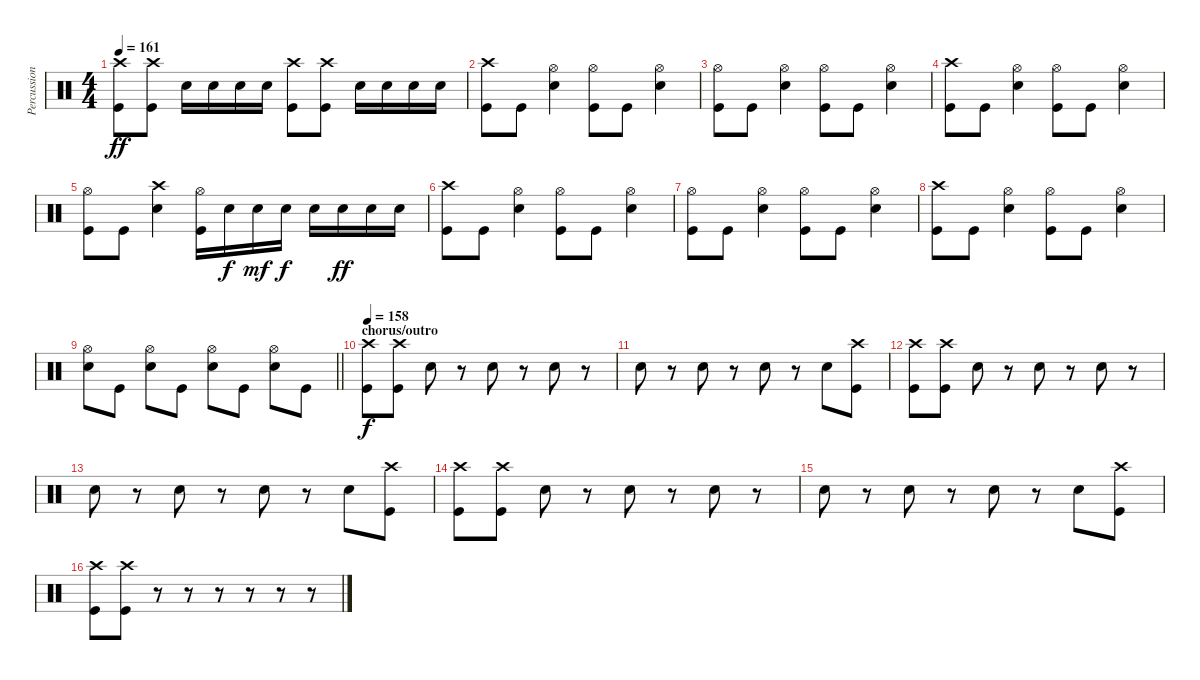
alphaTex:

\track ("Percussion" "Percussion") {instrument percussion}
\staff {score}
\articulation defaults
\ts (4 4)
\tempo 161
\clef neutral
\ks c
("Crash high (hit)" "Kick (hit)").8{dy ff} ("Crash high (hit)" "Kick (hit)").8 "Snare (hit) 2".16 "Snare (hit) 2".16 "Snare (hit) 2".16 "Snare (hit) 2".16 ("Crash high (hit)" "Kick (hit)").8 ("Crash high (hit)" "Kick (hit)").8 "Snare (hit) 2".16 "Snare (hit) 2".16 "Snare (hit) 2".16 "Snare (hit) 2".16 |
("Crash high (hit)" "Kick (hit)").8 "Kick (hit)".8 ("Hi-Hat (open)" "Snare (hit) 2").4 ("Hi-Hat (open)" "Kick (hit)").8 "Kick (hit)".8 ("Hi-Hat (open)" "Snare (hit) 2").4 |
("Hi-Hat (open)" "Kick (hit)").8 "Kick (hit)".8 ("Hi-Hat (open)" "Snare (hit) 2").4 ("Hi-Hat (open)" "Kick (hit)").8 "Kick (hit)".8 ("Hi-Hat (open)" "Snare (hit) 2").4 |
("Crash high (hit)" "Kick (hit)").8 "Kick (hit)".8 ("Hi-Hat (open)" "Snare (hit) 2").4 ("Hi-Hat (open)" "Kick (hit)").8 "Kick (hit)".8 ("Hi-Hat (open)" "Snare (hit) 2").4 |
("Hi-Hat (open)" "Kick (hit)").8 "Kick (hit)".8 ("Crash high (hit)" "Snare (hit) 2").4 ("Hi-Hat (open)" "Kick (hit)").16 "Snare (hit) 2".16{dy f} "Snare (hit) 2".16{dy mf} "Snare (hit) 2".16{dy f} "Snare (hit) 2".16 "Snare (hit) 2".16{dy ff} "Snare (hit) 2".16 "Snare (hit) 2".16 |
("Crash high (hit)" "Kick (hit)").8 "Kick (hit)".8 ("Hi-Hat (open)" "Snare (hit) 2").4 ("Hi-Hat (open)" "Kick (hit)").8 "Kick (hit)".8 ("Hi-Hat (open)" "Snare (hit) 2").4 |
("Hi-Hat (open)" "Kick (hit)").8 "Kick (hit)".8 ("Hi-Hat (open)" "Snare (hit) 2").4 ("Hi-Hat (open)" "Kick (hit)").8 "Kick (hit)".8 ("Hi-Hat (open)" "Snare (hit) 2").4 |
("Crash high (hit)" "Kick (hit)").8 "Kick (hit)".8 ("Hi-Hat (open)" "Snare (hit) 2").4 ("Hi-Hat (open)" "Kick (hit)").8 "Kick (hit)".8 ("Hi-Hat (open)" "Snare (hit) 2").4 |
\barLineRight lightlight
("Hi-Hat (open)" "Snare (hit) 2").8 "Kick (hit)".8 ("Hi-Hat (open)" "Snare (hit) 2").8 "Kick (hit)".8 ("Hi-Hat (open)" "Snare (hit) 2").8 "Kick (hit)".8 ("Hi-Hat (open)" "Snare (hit) 2").8 "Kick (hit)".8 |
\section ("" "chorus/outro")
\tempo 158
("Crash high (hit)" "Kick (hit)").8{dy f} ("Crash high (hit)" "Kick (hit)").8 "Snare (hit) 2".8 r.8 "Snare (hit) 2".8 r.8 "Snare (hit) 2".8 r.8 |
"Snare (hit) 2".8 r.8 "Snare (hit) 2".8 r.8 "Snare (hit) 2".8 r.8 "Snare (hit) 2".8 ("Crash high (hit)" "Kick (hit)").8 |
("Crash high (hit)" "Kick (hit)").8 ("Crash high (hit)" "Kick (hit)").8 "Snare (hit) 2".8 r.8 "Snare (hit) 2".8 r.8 "Snare (hit) 2".8 r.8 |
"Snare (hit) 2".8 r.8 "Snare (hit) 2".8 r.8 "Snare (hit) 2".8 r.8 "Snare (hit) 2".8 ("Crash high (hit)" "Kick (hit)").8 |
("Crash high (hit)" "Kick (hit)").8 ("Crash high (hit)" "Kick (hit)").8 "Snare (hit) 2".8 r.8 "Snare (hit) 2".8 r.8 "Snare (hit) 2".8 r.8 |
"Snare (hit) 2".8 r.8 "Snare (hit) 2".8 r.8 "Snare (hit) 2".8 r.8 "Snare (hit) 2".8 ("Crash high (hit)" "Kick (hit)").8 |
("Crash high (hit)" "Kick (hit)").8 ("Crash high (hit)" "Kick (hit)").8 r.8 r.8 r.8 r.8 r.8 r.8
